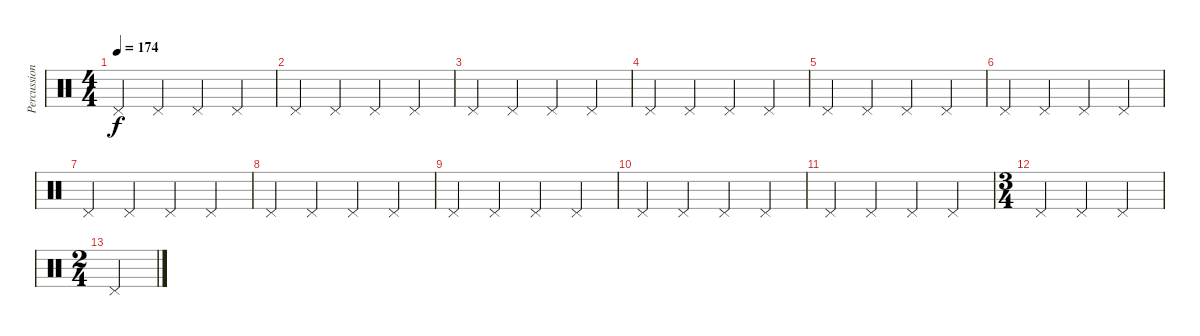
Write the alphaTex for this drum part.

\track ("Percussion" "Percussion") {instrument percussion}
\staff {score}
\articulation defaults
\ts (4 4)
\tempo 174
\clef neutral
\ks c "Pedal Hi-Hat (hit)".4{dy f} "Pedal Hi-Hat (hit)".4 "Pedal Hi-Hat (hit)".4 "Pedal Hi-Hat (hit)".4
|
"Pedal Hi-Hat (hit)".4 "Pedal Hi-Hat (hit)".4 "Pedal Hi-Hat (hit)".4 "Pedal Hi-Hat (hit)".4 |
"Pedal Hi-Hat (hit)".4 "Pedal Hi-Hat (hit)".4 "Pedal Hi-Hat (hit)".4 "Pedal Hi-Hat (hit)".4 |
"Pedal Hi-Hat (hit)".4 "Pedal Hi-Hat (hit)".4 "Pedal Hi-Hat (hit)".4 "Pedal Hi-Hat (hit)".4 |
"Pedal Hi-Hat (hit)".4 "Pedal Hi-Hat (hit)".4 "Pedal Hi-Hat (hit)".4 "Pedal Hi-Hat (hit)".4 |
"Pedal Hi-Hat (hit)".4 "Pedal Hi-Hat (hit)".4 "Pedal Hi-Hat (hit)".4 "Pedal Hi-Hat (hit)".4 |
"Pedal Hi-Hat (hit)".4 "Pedal Hi-Hat (hit)".4 "Pedal Hi-Hat (hit)".4 "Pedal Hi-Hat (hit)".4 |
"Pedal Hi-Hat (hit)".4 "Pedal Hi-Hat (hit)".4 "Pedal Hi-Hat (hit)".4 "Pedal Hi-Hat (hit)".4 |
"Pedal Hi-Hat (hit)".4 "Pedal Hi-Hat (hit)".4 "Pedal Hi-Hat (hit)".4 "Pedal Hi-Hat (hit)".4 |
"Pedal Hi-Hat (hit)".4 "Pedal Hi-Hat (hit)".4 "Pedal Hi-Hat (hit)".4 "Pedal Hi-Hat (hit)".4 |
"Pedal Hi-Hat (hit)".4 "Pedal Hi-Hat (hit)".4 "Pedal Hi-Hat (hit)".4 "Pedal Hi-Hat (hit)".4 |
\ts (3 4)
"Pedal Hi-Hat (hit)".4 "Pedal Hi-Hat (hit)".4 "Pedal Hi-Hat (hit)".4 |
\ts (2 4)
"Pedal Hi-Hat (hit)".2
